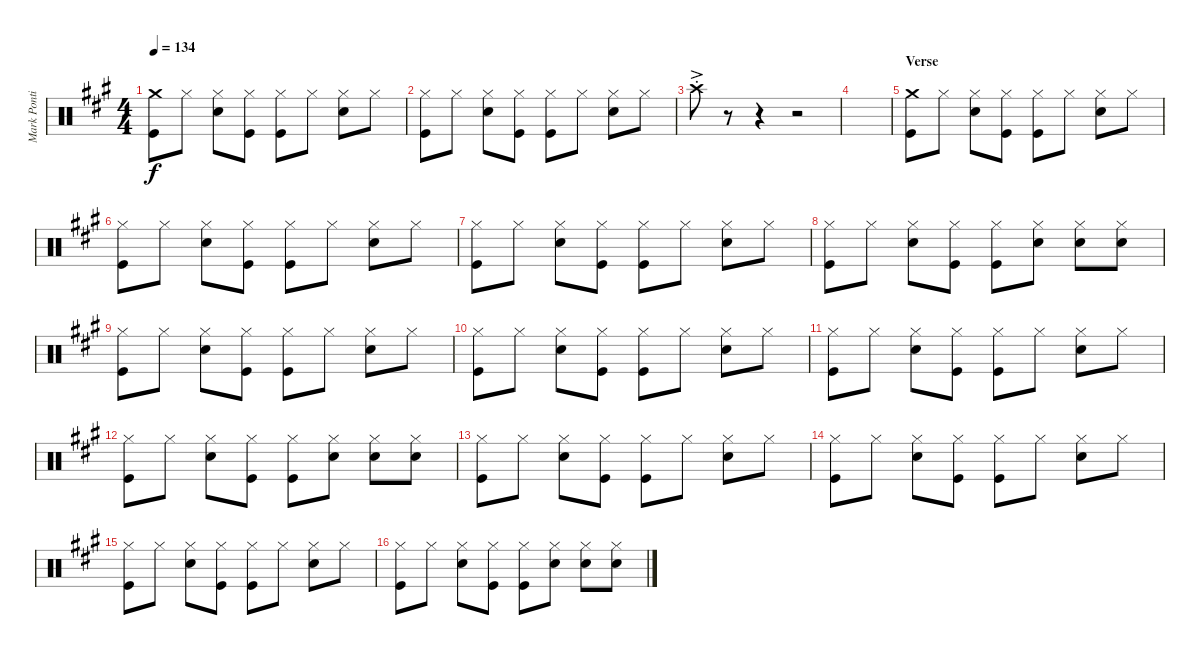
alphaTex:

\track ("Mark Pontius" "Mark Ponti") {instrument percussion}
\staff {score}
\articulation defaults
\ts (4 4)
\tempo 134
\clef neutral
\ks a
("Crash medium (hit)" "Kick (hit)").8{dy f} "Hi-Hat (closed)".8 ("Hi-Hat (closed)" "Snare (hit) 2").8 ("Hi-Hat (closed)" "Kick (hit)").8 ("Hi-Hat (closed)" "Kick (hit)").8 "Hi-Hat (closed)".8 ("Hi-Hat (closed)" "Snare (hit) 2").8 "Hi-Hat (closed)".8 |
("Hi-Hat (closed)" "Kick (hit)").8 "Hi-Hat (closed)".8 ("Hi-Hat (closed)" "Snare (hit) 2").8 ("Hi-Hat (closed)" "Kick (hit)").8 ("Hi-Hat (closed)" "Kick (hit)").8 "Hi-Hat (closed)".8 ("Hi-Hat (closed)" "Snare (hit) 2").8 "Hi-Hat (closed)".8 |
"Crash high (hit)"{ac st}.8 r.8 r.4 r.2 |
|
\section ("" "Verse")
("Crash medium (hit)" "Kick (hit)").8 "Hi-Hat (closed)".8 ("Hi-Hat (closed)" "Snare (hit) 2").8 ("Hi-Hat (closed)" "Kick (hit)").8 ("Hi-Hat (closed)" "Kick (hit)").8 "Hi-Hat (closed)".8 ("Hi-Hat (closed)" "Snare (hit) 2").8 "Hi-Hat (closed)".8 |
("Hi-Hat (closed)" "Kick (hit)").8 "Hi-Hat (closed)".8 ("Hi-Hat (closed)" "Snare (hit) 2").8 ("Hi-Hat (closed)" "Kick (hit)").8 ("Hi-Hat (closed)" "Kick (hit)").8 "Hi-Hat (closed)".8 ("Hi-Hat (closed)" "Snare (hit) 2").8 "Hi-Hat (closed)".8 |
("Hi-Hat (closed)" "Kick (hit)").8 "Hi-Hat (closed)".8 ("Hi-Hat (closed)" "Snare (hit) 2").8 ("Hi-Hat (closed)" "Kick (hit)").8 ("Hi-Hat (closed)" "Kick (hit)").8 "Hi-Hat (closed)".8 ("Hi-Hat (closed)" "Snare (hit) 2").8 "Hi-Hat (closed)".8 |
("Hi-Hat (closed)" "Kick (hit)").8 "Hi-Hat (closed)".8 ("Hi-Hat (closed)" "Snare (hit) 2").8 ("Hi-Hat (closed)" "Kick (hit)").8 ("Hi-Hat (closed)" "Kick (hit)").8 ("Hi-Hat (closed)" "Snare (hit) 2").8 ("Hi-Hat (closed)" "Snare (hit) 2").8 ("Hi-Hat (closed)" "Snare (hit) 2").8 |
("Kick (hit)" "Hi-Hat (closed)").8 "Hi-Hat (closed)".8 ("Hi-Hat (closed)" "Snare (hit) 2").8 ("Hi-Hat (closed)" "Kick (hit)").8 ("Hi-Hat (closed)" "Kick (hit)").8 "Hi-Hat (closed)".8 ("Hi-Hat (closed)" "Snare (hit) 2").8 "Hi-Hat (closed)".8 |
("Hi-Hat (closed)" "Kick (hit)").8 "Hi-Hat (closed)".8 ("Hi-Hat (closed)" "Snare (hit) 2").8 ("Hi-Hat (closed)" "Kick (hit)").8 ("Hi-Hat (closed)" "Kick (hit)").8 "Hi-Hat (closed)".8 ("Hi-Hat (closed)" "Snare (hit) 2").8 "Hi-Hat (closed)".8 |
("Hi-Hat (closed)" "Kick (hit)").8 "Hi-Hat (closed)".8 ("Hi-Hat (closed)" "Snare (hit) 2").8 ("Hi-Hat (closed)" "Kick (hit)").8 ("Hi-Hat (closed)" "Kick (hit)").8 "Hi-Hat (closed)".8 ("Hi-Hat (closed)" "Snare (hit) 2").8 "Hi-Hat (closed)".8 |
("Hi-Hat (closed)" "Kick (hit)").8 "Hi-Hat (closed)".8 ("Hi-Hat (closed)" "Snare (hit) 2").8 ("Hi-Hat (closed)" "Kick (hit)").8 ("Hi-Hat (closed)" "Kick (hit)").8 ("Hi-Hat (closed)" "Snare (hit) 2").8 ("Hi-Hat (closed)" "Snare (hit) 2").8 ("Hi-Hat (closed)" "Snare (hit) 2").8 |
("Kick (hit)" "Hi-Hat (closed)").8 "Hi-Hat (closed)".8 ("Hi-Hat (closed)" "Snare (hit) 2").8 ("Hi-Hat (closed)" "Kick (hit)").8 ("Hi-Hat (closed)" "Kick (hit)").8 "Hi-Hat (closed)".8 ("Hi-Hat (closed)" "Snare (hit) 2").8 "Hi-Hat (closed)".8 |
("Hi-Hat (closed)" "Kick (hit)").8 "Hi-Hat (closed)".8 ("Hi-Hat (closed)" "Snare (hit) 2").8 ("Hi-Hat (closed)" "Kick (hit)").8 ("Hi-Hat (closed)" "Kick (hit)").8 "Hi-Hat (closed)".8 ("Hi-Hat (closed)" "Snare (hit) 2").8 "Hi-Hat (closed)".8 |
("Hi-Hat (closed)" "Kick (hit)").8 "Hi-Hat (closed)".8 ("Hi-Hat (closed)" "Snare (hit) 2").8 ("Hi-Hat (closed)" "Kick (hit)").8 ("Hi-Hat (closed)" "Kick (hit)").8 "Hi-Hat (closed)".8 ("Hi-Hat (closed)" "Snare (hit) 2").8 "Hi-Hat (closed)".8 |
("Hi-Hat (closed)" "Kick (hit)").8 "Hi-Hat (closed)".8 ("Hi-Hat (closed)" "Snare (hit) 2").8 ("Hi-Hat (closed)" "Kick (hit)").8 ("Hi-Hat (closed)" "Kick (hit)").8 ("Hi-Hat (closed)" "Snare (hit) 2").8 ("Hi-Hat (closed)" "Snare (hit) 2").8 ("Hi-Hat (closed)" "Snare (hit) 2").8
